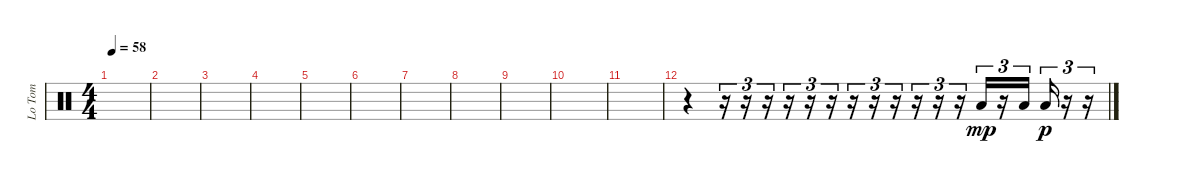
\track ("Lo Tom" "Lo Tom") {instrument percussion}
\staff {score}
\articulation defaults
\ts (4 4)
\tempo 58
\clef neutral
\ks c
|
|
|
|
|
|
|
|
|
|
|
r.4 r.16{tu (3 2)} r.16{tu (3 2)} r.16{tu (3 2)} r.16{tu (3 2)} r.16{tu (3 2)} r.16{tu (3 2)} r.16{tu (3 2)} r.16{tu (3 2)} r.16{tu (3 2)} r.16{tu (3 2)} r.16{tu (3 2)} r.16{tu (3 2)} "Low Tom (hit)".16{tu (3 2) dy mp} r.16{tu (3 2)} "Low Tom (hit)".16{tu (3 2)} "Low Tom (hit)".16{tu (3 2) dy p} r.16{tu (3 2)} r.16{tu (3 2)}
